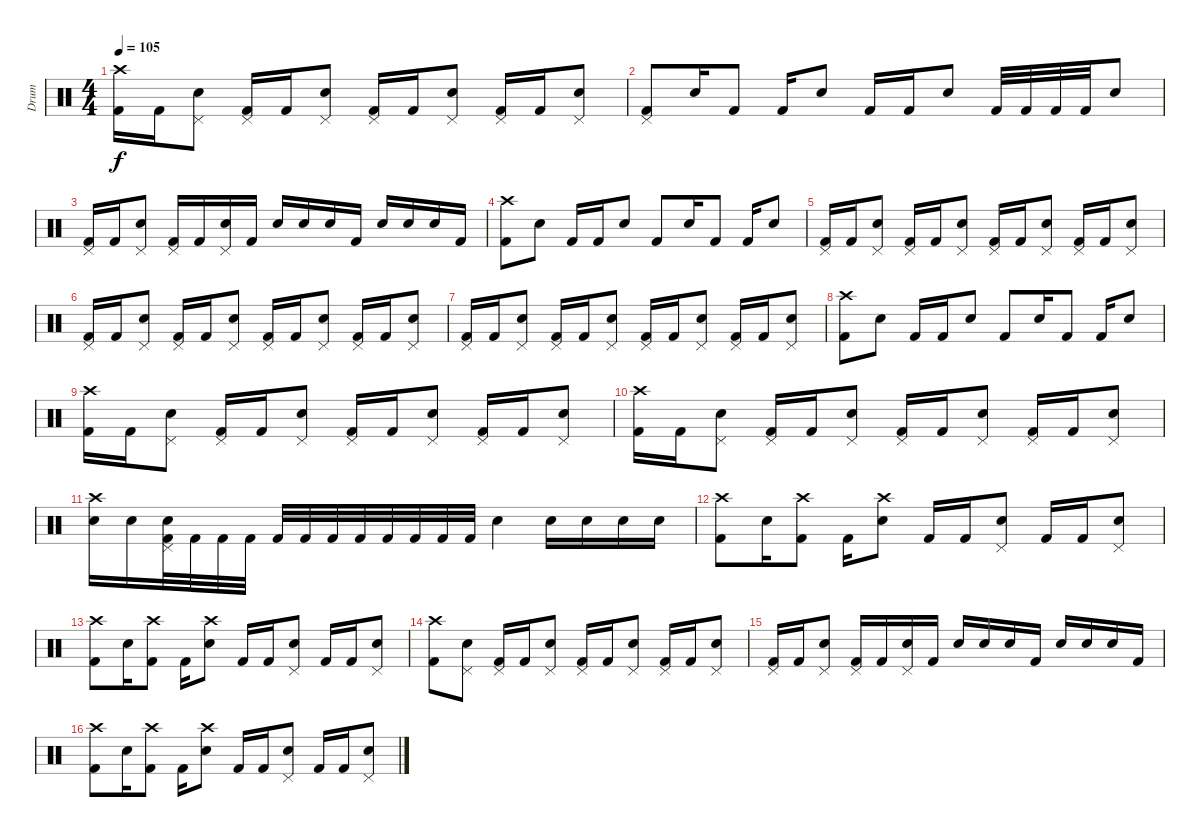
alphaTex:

\track ("Drum" "Drum") {instrument percussion}
\staff {score}
\articulation defaults
\ts (4 4)
\tempo 105
\clef neutral
\ks c
("Crash high (hit)" "Kick (hit) 2").16{dy f} "Kick (hit) 2".16 ("Pedal Hi-Hat (hit)" "Snare (hit) 2").8 ("Pedal Hi-Hat (hit)" "Kick (hit) 2").16 "Kick (hit) 2".16 ("Pedal Hi-Hat (hit)" "Snare (hit) 2").8 ("Pedal Hi-Hat (hit)" "Kick (hit) 2").16 "Kick (hit) 2".16 ("Pedal Hi-Hat (hit)" "Snare (hit) 2").8 ("Pedal Hi-Hat (hit)" "Kick (hit) 2").16 "Kick (hit) 2".16 ("Pedal Hi-Hat (hit)" "Snare (hit) 2").8 |
("Pedal Hi-Hat (hit)" "Kick (hit) 2").8 "Snare (hit) 2".16 "Kick (hit) 2".8 "Kick (hit) 2".16 "Snare (hit) 2".8 "Kick (hit) 2".16 "Kick (hit) 2".16 "Snare (hit) 2".8 "Kick (hit) 2".32 "Kick (hit) 2".32 "Kick (hit) 2".32 "Kick (hit) 2".32 "Snare (hit) 2".8 |
("Pedal Hi-Hat (hit)" "Kick (hit) 2").16 "Kick (hit) 2".16 ("Pedal Hi-Hat (hit)" "Snare (hit) 2").8 ("Pedal Hi-Hat (hit)" "Kick (hit) 2").16 "Kick (hit) 2".16 ("Pedal Hi-Hat (hit)" "Snare (hit) 2").16 "Kick (hit) 2".16 "Snare (hit) 2".16 "Snare (hit) 2".16 "Snare (hit) 2".16 "Kick (hit) 2".16 "Snare (hit) 2".16 "Snare (hit) 2".16 "Snare (hit) 2".16 "Kick (hit) 2".16 |
("Crash high (hit)" "Kick (hit) 2").8 "Snare (hit) 2".8 "Kick (hit) 2".16 "Kick (hit) 2".16 "Snare (hit) 2".8 "Kick (hit) 2".8 "Snare (hit) 2".16 "Kick (hit) 2".8 "Kick (hit) 2".16 "Snare (hit) 2".8 |
("Pedal Hi-Hat (hit)" "Kick (hit) 2").16 "Kick (hit) 2".16 ("Pedal Hi-Hat (hit)" "Snare (hit) 2").8 ("Pedal Hi-Hat (hit)" "Kick (hit) 2").16 "Kick (hit) 2".16 ("Pedal Hi-Hat (hit)" "Snare (hit) 2").8 ("Pedal Hi-Hat (hit)" "Kick (hit) 2").16 "Kick (hit) 2".16 ("Pedal Hi-Hat (hit)" "Snare (hit) 2").8 ("Pedal Hi-Hat (hit)" "Kick (hit) 2").16 "Kick (hit) 2".16 ("Pedal Hi-Hat (hit)" "Snare (hit) 2").8 |
("Pedal Hi-Hat (hit)" "Kick (hit) 2").16 "Kick (hit) 2".16 ("Pedal Hi-Hat (hit)" "Snare (hit) 2").8 ("Pedal Hi-Hat (hit)" "Kick (hit) 2").16 "Kick (hit) 2".16 ("Pedal Hi-Hat (hit)" "Snare (hit) 2").8 ("Pedal Hi-Hat (hit)" "Kick (hit) 2").16 "Kick (hit) 2".16 ("Pedal Hi-Hat (hit)" "Snare (hit) 2").8 ("Pedal Hi-Hat (hit)" "Kick (hit) 2").16 "Kick (hit) 2".16 ("Pedal Hi-Hat (hit)" "Snare (hit) 2").8 |
("Pedal Hi-Hat (hit)" "Kick (hit) 2").16 "Kick (hit) 2".16 ("Pedal Hi-Hat (hit)" "Snare (hit) 2").8 ("Pedal Hi-Hat (hit)" "Kick (hit) 2").16 "Kick (hit) 2".16 ("Pedal Hi-Hat (hit)" "Snare (hit) 2").8 ("Pedal Hi-Hat (hit)" "Kick (hit) 2").16 "Kick (hit) 2".16 ("Pedal Hi-Hat (hit)" "Snare (hit) 2").8 ("Pedal Hi-Hat (hit)" "Kick (hit) 2").16 "Kick (hit) 2".16 ("Pedal Hi-Hat (hit)" "Snare (hit) 2").8 |
("Crash high (hit)" "Kick (hit) 2").8 "Snare (hit) 2".8 "Kick (hit) 2".16 "Kick (hit) 2".16 "Snare (hit) 2".8 "Kick (hit) 2".8 "Snare (hit) 2".16 "Kick (hit) 2".8 "Kick (hit) 2".16 "Snare (hit) 2".8 |
("Crash high (hit)" "Kick (hit) 2").16 "Kick (hit) 2".16 ("Pedal Hi-Hat (hit)" "Snare (hit) 2").8 ("Pedal Hi-Hat (hit)" "Kick (hit) 2").16 "Kick (hit) 2".16 ("Pedal Hi-Hat (hit)" "Snare (hit) 2").8 ("Pedal Hi-Hat (hit)" "Kick (hit) 2").16 "Kick (hit) 2".16 ("Pedal Hi-Hat (hit)" "Snare (hit) 2").8 ("Pedal Hi-Hat (hit)" "Kick (hit) 2").16 "Kick (hit) 2".16 ("Pedal Hi-Hat (hit)" "Snare (hit) 2").8 |
("Crash high (hit)" "Kick (hit) 2").16 "Kick (hit) 2".16 ("Pedal Hi-Hat (hit)" "Snare (hit) 2").8 ("Pedal Hi-Hat (hit)" "Kick (hit) 2").16 "Kick (hit) 2".16 ("Pedal Hi-Hat (hit)" "Snare (hit) 2").8 ("Pedal Hi-Hat (hit)" "Kick (hit) 2").16 "Kick (hit) 2".16 ("Pedal Hi-Hat (hit)" "Snare (hit) 2").8 ("Pedal Hi-Hat (hit)" "Kick (hit) 2").16 "Kick (hit) 2".16 ("Pedal Hi-Hat (hit)" "Snare (hit) 2").8 |
("Crash high (hit)" "Snare (hit) 2").16 "Snare (hit) 2".16 ("Pedal Hi-Hat (hit)" "Snare (hit) 2" "Kick (hit) 2").32 "Kick (hit) 2".32 "Kick (hit) 2".32 "Kick (hit) 2".32 "Kick (hit) 2".32 "Kick (hit) 2".32 "Kick (hit) 2".32 "Kick (hit) 2".32 "Kick (hit) 2".32 "Kick (hit) 2".32 "Kick (hit) 2".32 "Kick (hit) 2".32 "Snare (hit) 2".4 "Snare (hit) 2".16 "Snare (hit) 2".16 "Snare (hit) 2".16 "Snare (hit) 2".16 |
("Crash high (hit)" "Kick (hit) 2").8 "Snare (hit) 2".16 ("Crash high (hit)" "Kick (hit) 2").8 "Kick (hit) 2".16 ("Crash high (hit)" "Snare (hit) 2").8 "Kick (hit) 2".16 "Kick (hit) 2".16 ("Pedal Hi-Hat (hit)" "Snare (hit) 2").8 "Kick (hit) 2".16 "Kick (hit) 2".16 ("Pedal Hi-Hat (hit)" "Snare (hit) 2").8 |
("Crash high (hit)" "Kick (hit) 2").8 "Snare (hit) 2".16 ("Crash high (hit)" "Kick (hit) 2").8 "Kick (hit) 2".16 ("Crash high (hit)" "Snare (hit) 2").8 "Kick (hit) 2".16 "Kick (hit) 2".16 ("Pedal Hi-Hat (hit)" "Snare (hit) 2").8 "Kick (hit) 2".16 "Kick (hit) 2".16 ("Pedal Hi-Hat (hit)" "Snare (hit) 2").8 |
("Crash high (hit)" "Kick (hit) 2").8 ("Pedal Hi-Hat (hit)" "Snare (hit) 2").8 ("Pedal Hi-Hat (hit)" "Kick (hit) 2").16 "Kick (hit) 2".16 ("Pedal Hi-Hat (hit)" "Snare (hit) 2").8 ("Pedal Hi-Hat (hit)" "Kick (hit) 2").16 "Kick (hit) 2".16 ("Pedal Hi-Hat (hit)" "Snare (hit) 2").8 ("Pedal Hi-Hat (hit)" "Kick (hit) 2").16 "Kick (hit) 2".16 ("Pedal Hi-Hat (hit)" "Snare (hit) 2").8 |
("Pedal Hi-Hat (hit)" "Kick (hit) 2").16 "Kick (hit) 2".16 ("Pedal Hi-Hat (hit)" "Snare (hit) 2").8 ("Pedal Hi-Hat (hit)" "Kick (hit) 2").16 "Kick (hit) 2".16 ("Pedal Hi-Hat (hit)" "Snare (hit) 2").16 "Kick (hit) 2".16 "Snare (hit) 2".16 "Snare (hit) 2".16 "Snare (hit) 2".16 "Kick (hit) 2".16 "Snare (hit) 2".16 "Snare (hit) 2".16 "Snare (hit) 2".16 "Kick (hit) 2".16 |
("Crash high (hit)" "Kick (hit) 2").8 "Snare (hit) 2".16 ("Crash high (hit)" "Kick (hit) 2").8 "Kick (hit) 2".16 ("Crash high (hit)" "Snare (hit) 2").8 "Kick (hit) 2".16 "Kick (hit) 2".16 ("Pedal Hi-Hat (hit)" "Snare (hit) 2").8 "Kick (hit) 2".16 "Kick (hit) 2".16 ("Pedal Hi-Hat (hit)" "Snare (hit) 2").8
